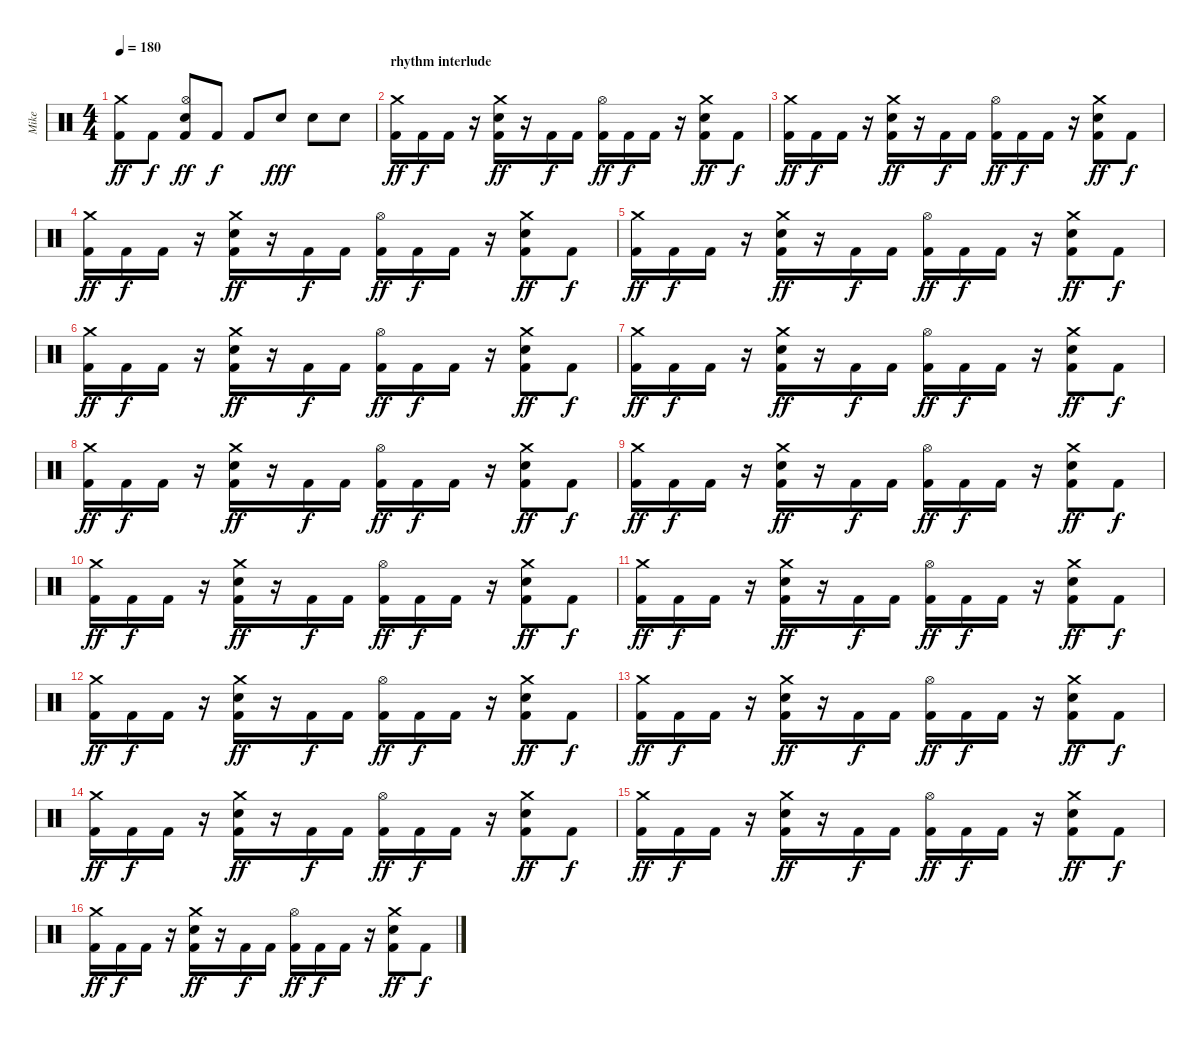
\track ("Mike" "Mike") {instrument percussion}
\staff {score}
\articulation defaults
\ts (4 4)
\tempo 180
\clef neutral
\ks c
("Crash medium (hit)" "Kick (hit) 2").8{dy ff} "Kick (hit) 2".8{dy f} ("Hi-Hat (open)" "Snare (hit) 2" "Kick (hit) 2").8{dy ff} "Kick (hit) 2".8{dy f} "Kick (hit) 2".8 "Snare (hit) 2".8{dy fff} "Snare (hit) 2".8 "Snare (hit) 2".8 |
\section ("" "rhythm interlude")
("Crash medium (hit)" "Kick (hit) 2").16{dy ff} "Kick (hit) 2".16{dy f} "Kick (hit) 2".16 r.16 ("Crash medium (hit)" "Snare (hit) 2" "Kick (hit) 2").16{dy ff} r.16 "Kick (hit) 2".16{dy f} "Kick (hit) 2".16 ("Hi-Hat (open)" "Kick (hit) 2").16{dy ff} "Kick (hit) 2".16{dy f} "Kick (hit) 2".16 r.16 ("Crash medium (hit)" "Snare (hit) 2" "Kick (hit) 2").8{dy ff} "Kick (hit) 2".8{dy f} |
("Crash medium (hit)" "Kick (hit) 2").16{dy ff} "Kick (hit) 2".16{dy f} "Kick (hit) 2".16 r.16 ("Crash medium (hit)" "Snare (hit) 2" "Kick (hit) 2").16{dy ff} r.16 "Kick (hit) 2".16{dy f} "Kick (hit) 2".16 ("Hi-Hat (open)" "Kick (hit) 2").16{dy ff} "Kick (hit) 2".16{dy f} "Kick (hit) 2".16 r.16 ("Crash medium (hit)" "Snare (hit) 2" "Kick (hit) 2").8{dy ff} "Kick (hit) 2".8{dy f} |
("Crash medium (hit)" "Kick (hit) 2").16{dy ff} "Kick (hit) 2".16{dy f} "Kick (hit) 2".16 r.16 ("Crash medium (hit)" "Snare (hit) 2" "Kick (hit) 2").16{dy ff} r.16 "Kick (hit) 2".16{dy f} "Kick (hit) 2".16 ("Hi-Hat (open)" "Kick (hit) 2").16{dy ff} "Kick (hit) 2".16{dy f} "Kick (hit) 2".16 r.16 ("Crash medium (hit)" "Snare (hit) 2" "Kick (hit) 2").8{dy ff} "Kick (hit) 2".8{dy f} |
("Crash medium (hit)" "Kick (hit) 2").16{dy ff} "Kick (hit) 2".16{dy f} "Kick (hit) 2".16 r.16 ("Crash medium (hit)" "Snare (hit) 2" "Kick (hit) 2").16{dy ff} r.16 "Kick (hit) 2".16{dy f} "Kick (hit) 2".16 ("Hi-Hat (open)" "Kick (hit) 2").16{dy ff} "Kick (hit) 2".16{dy f} "Kick (hit) 2".16 r.16 ("Crash medium (hit)" "Snare (hit) 2" "Kick (hit) 2").8{dy ff} "Kick (hit) 2".8{dy f} |
("Crash medium (hit)" "Kick (hit) 2").16{dy ff} "Kick (hit) 2".16{dy f} "Kick (hit) 2".16 r.16 ("Crash medium (hit)" "Snare (hit) 2" "Kick (hit) 2").16{dy ff} r.16 "Kick (hit) 2".16{dy f} "Kick (hit) 2".16 ("Hi-Hat (open)" "Kick (hit) 2").16{dy ff} "Kick (hit) 2".16{dy f} "Kick (hit) 2".16 r.16 ("Crash medium (hit)" "Snare (hit) 2" "Kick (hit) 2").8{dy ff} "Kick (hit) 2".8{dy f} |
("Crash medium (hit)" "Kick (hit) 2").16{dy ff} "Kick (hit) 2".16{dy f} "Kick (hit) 2".16 r.16 ("Crash medium (hit)" "Snare (hit) 2" "Kick (hit) 2").16{dy ff} r.16 "Kick (hit) 2".16{dy f} "Kick (hit) 2".16 ("Hi-Hat (open)" "Kick (hit) 2").16{dy ff} "Kick (hit) 2".16{dy f} "Kick (hit) 2".16 r.16 ("Crash medium (hit)" "Snare (hit) 2" "Kick (hit) 2").8{dy ff} "Kick (hit) 2".8{dy f} |
("Crash medium (hit)" "Kick (hit) 2").16{dy ff} "Kick (hit) 2".16{dy f} "Kick (hit) 2".16 r.16 ("Crash medium (hit)" "Snare (hit) 2" "Kick (hit) 2").16{dy ff} r.16 "Kick (hit) 2".16{dy f} "Kick (hit) 2".16 ("Hi-Hat (open)" "Kick (hit) 2").16{dy ff} "Kick (hit) 2".16{dy f} "Kick (hit) 2".16 r.16 ("Crash medium (hit)" "Snare (hit) 2" "Kick (hit) 2").8{dy ff} "Kick (hit) 2".8{dy f} |
("Crash medium (hit)" "Kick (hit) 2").16{dy ff} "Kick (hit) 2".16{dy f} "Kick (hit) 2".16 r.16 ("Crash medium (hit)" "Snare (hit) 2" "Kick (hit) 2").16{dy ff} r.16 "Kick (hit) 2".16{dy f} "Kick (hit) 2".16 ("Hi-Hat (open)" "Kick (hit) 2").16{dy ff} "Kick (hit) 2".16{dy f} "Kick (hit) 2".16 r.16 ("Crash medium (hit)" "Snare (hit) 2" "Kick (hit) 2").8{dy ff} "Kick (hit) 2".8{dy f} |
("Crash medium (hit)" "Kick (hit) 2").16{dy ff} "Kick (hit) 2".16{dy f} "Kick (hit) 2".16 r.16 ("Crash medium (hit)" "Snare (hit) 2" "Kick (hit) 2").16{dy ff} r.16 "Kick (hit) 2".16{dy f} "Kick (hit) 2".16 ("Hi-Hat (open)" "Kick (hit) 2").16{dy ff} "Kick (hit) 2".16{dy f} "Kick (hit) 2".16 r.16 ("Crash medium (hit)" "Snare (hit) 2" "Kick (hit) 2").8{dy ff} "Kick (hit) 2".8{dy f} |
("Crash medium (hit)" "Kick (hit) 2").16{dy ff} "Kick (hit) 2".16{dy f} "Kick (hit) 2".16 r.16 ("Crash medium (hit)" "Snare (hit) 2" "Kick (hit) 2").16{dy ff} r.16 "Kick (hit) 2".16{dy f} "Kick (hit) 2".16 ("Hi-Hat (open)" "Kick (hit) 2").16{dy ff} "Kick (hit) 2".16{dy f} "Kick (hit) 2".16 r.16 ("Crash medium (hit)" "Snare (hit) 2" "Kick (hit) 2").8{dy ff} "Kick (hit) 2".8{dy f} |
("Crash medium (hit)" "Kick (hit) 2").16{dy ff} "Kick (hit) 2".16{dy f} "Kick (hit) 2".16 r.16 ("Crash medium (hit)" "Snare (hit) 2" "Kick (hit) 2").16{dy ff} r.16 "Kick (hit) 2".16{dy f} "Kick (hit) 2".16 ("Hi-Hat (open)" "Kick (hit) 2").16{dy ff} "Kick (hit) 2".16{dy f} "Kick (hit) 2".16 r.16 ("Crash medium (hit)" "Snare (hit) 2" "Kick (hit) 2").8{dy ff} "Kick (hit) 2".8{dy f} |
("Crash medium (hit)" "Kick (hit) 2").16{dy ff} "Kick (hit) 2".16{dy f} "Kick (hit) 2".16 r.16 ("Crash medium (hit)" "Snare (hit) 2" "Kick (hit) 2").16{dy ff} r.16 "Kick (hit) 2".16{dy f} "Kick (hit) 2".16 ("Hi-Hat (open)" "Kick (hit) 2").16{dy ff} "Kick (hit) 2".16{dy f} "Kick (hit) 2".16 r.16 ("Crash medium (hit)" "Snare (hit) 2" "Kick (hit) 2").8{dy ff} "Kick (hit) 2".8{dy f} |
("Crash medium (hit)" "Kick (hit) 2").16{dy ff} "Kick (hit) 2".16{dy f} "Kick (hit) 2".16 r.16 ("Crash medium (hit)" "Snare (hit) 2" "Kick (hit) 2").16{dy ff} r.16 "Kick (hit) 2".16{dy f} "Kick (hit) 2".16 ("Hi-Hat (open)" "Kick (hit) 2").16{dy ff} "Kick (hit) 2".16{dy f} "Kick (hit) 2".16 r.16 ("Crash medium (hit)" "Snare (hit) 2" "Kick (hit) 2").8{dy ff} "Kick (hit) 2".8{dy f} |
("Crash medium (hit)" "Kick (hit) 2").16{dy ff} "Kick (hit) 2".16{dy f} "Kick (hit) 2".16 r.16 ("Crash medium (hit)" "Snare (hit) 2" "Kick (hit) 2").16{dy ff} r.16 "Kick (hit) 2".16{dy f} "Kick (hit) 2".16 ("Hi-Hat (open)" "Kick (hit) 2").16{dy ff} "Kick (hit) 2".16{dy f} "Kick (hit) 2".16 r.16 ("Crash medium (hit)" "Snare (hit) 2" "Kick (hit) 2").8{dy ff} "Kick (hit) 2".8{dy f} |
("Crash medium (hit)" "Kick (hit) 2").16{dy ff} "Kick (hit) 2".16{dy f} "Kick (hit) 2".16 r.16 ("Crash medium (hit)" "Snare (hit) 2" "Kick (hit) 2").16{dy ff} r.16 "Kick (hit) 2".16{dy f} "Kick (hit) 2".16 ("Hi-Hat (open)" "Kick (hit) 2").16{dy ff} "Kick (hit) 2".16{dy f} "Kick (hit) 2".16 r.16 ("Crash medium (hit)" "Snare (hit) 2" "Kick (hit) 2").8{dy ff} "Kick (hit) 2".8{dy f}
